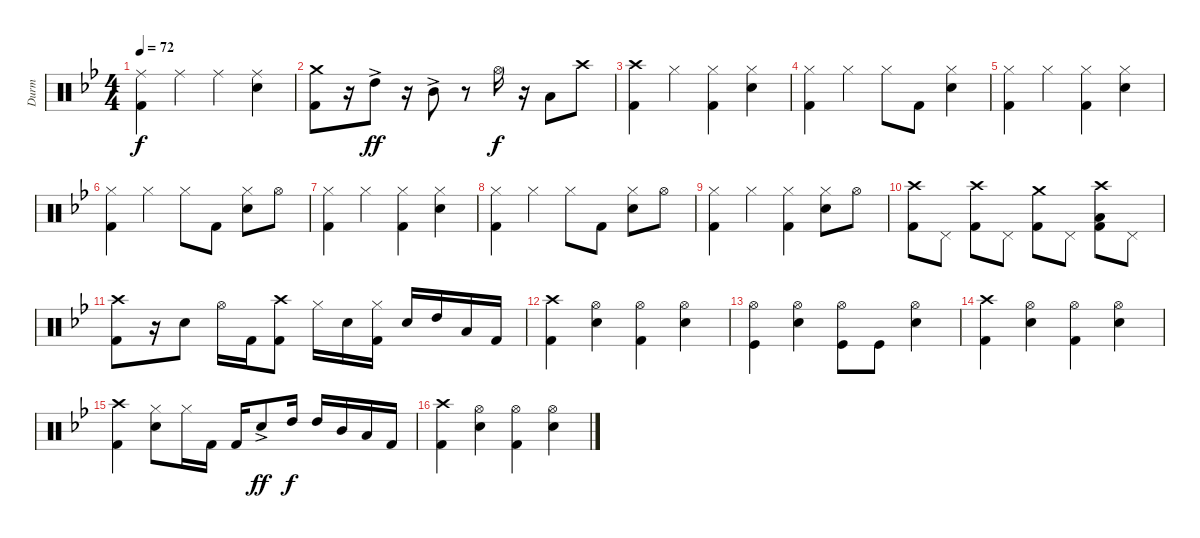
\track ("Durm" "Durm") {instrument percussion}
\staff {score}
\articulation defaults
\ts (4 4)
\tempo 72
\clef neutral
\ks bb
("Ride (middle)" "Kick (hit) 2").4{dy f} "Ride (middle)".4 "Ride (middle)".4 ("Ride (middle)" "Electric Snare (hit)").4 |
("Crash medium (hit)" "Kick (hit) 2").8 r.16 "High Tom (hit)"{ac}.8{dy ff} r.16 "Mid Tom (hit)"{ac}.8 r.8 "Hi-Hat (open)".16{dy f} r.16 "Low Floor Tom (hit)".8 "Crash high (hit)".8 |
("Crash high (hit)" "Kick (hit) 2").4 "Hi-Hat (closed)".4 ("Hi-Hat (closed)" "Kick (hit) 2").4 ("Hi-Hat (closed)" "Electric Snare (hit)").4 |
("Hi-Hat (closed)" "Kick (hit) 2").4 "Hi-Hat (closed)".4 "Hi-Hat (closed)".8 "Kick (hit) 2".8 ("Hi-Hat (closed)" "Electric Snare (hit)").4 |
("Hi-Hat (closed)" "Kick (hit) 2").4 "Hi-Hat (closed)".4 ("Hi-Hat (closed)" "Kick (hit) 2").4 ("Hi-Hat (closed)" "Electric Snare (hit)").4 |
("Hi-Hat (closed)" "Kick (hit) 2").4 "Hi-Hat (closed)".4 "Hi-Hat (closed)".8 "Kick (hit) 2".8 ("Hi-Hat (closed)" "Electric Snare (hit)").8 "Hi-Hat (open)".8 |
("Hi-Hat (closed)" "Kick (hit) 2").4 "Hi-Hat (closed)".4 ("Hi-Hat (closed)" "Kick (hit) 2").4 ("Hi-Hat (closed)" "Electric Snare (hit)").4 |
("Hi-Hat (closed)" "Kick (hit) 2").4 "Hi-Hat (closed)".4 "Hi-Hat (closed)".8 "Kick (hit) 2".8 ("Hi-Hat (closed)" "Electric Snare (hit)").8 "Hi-Hat (open)".8 |
("Hi-Hat (closed)" "Kick (hit) 2").4 "Hi-Hat (closed)".4 ("Hi-Hat (closed)" "Kick (hit) 2").4 ("Hi-Hat (closed)" "Electric Snare (hit)").8 "Hi-Hat (open)".8 |
("Crash high (hit)" "Kick (hit) 2").8 "Pedal Hi-Hat (hit)".8 ("Crash high (hit)" "Kick (hit) 2").8 "Pedal Hi-Hat (hit)".8 ("Crash medium (hit)" "Kick (hit) 2").8 "Pedal Hi-Hat (hit)".8 ("Crash high (hit)" "Low Floor Tom (hit)" "Kick (hit) 2").8 "Pedal Hi-Hat (hit)".8 |
("Crash high (hit)" "Kick (hit) 2").8 r.16 "Electric Snare (hit)".8 "Hi-Hat (open)".16 "Kick (hit) 2".16 ("Crash high (hit)" "Kick (hit) 2").8 "Hi-Hat (closed)".16 "Electric Snare (hit)".16 ("Hi-Hat (closed)" "Kick (hit) 2").16 "Electric Snare (hit)".16 "High Tom (hit)".16 "Low Floor Tom (hit)".16 "Kick (hit) 2".16 |
("Crash high (hit)" "Kick (hit) 2").4 ("Hi-Hat (open)" "Electric Snare (hit)").4 ("Hi-Hat (open)" "Kick (hit) 2").4 ("Hi-Hat (open)" "Electric Snare (hit)").4 |
("Hi-Hat (open)" "Kick (hit)").4 ("Hi-Hat (open)" "Electric Snare (hit)").4 ("Hi-Hat (open)" "Kick (hit)").8 "Kick (hit)".8 ("Hi-Hat (open)" "Electric Snare (hit)").4 |
("Crash high (hit)" "Kick (hit) 2").4 ("Hi-Hat (open)" "Electric Snare (hit)").4 ("Hi-Hat (open)" "Kick (hit) 2").4 ("Hi-Hat (open)" "Electric Snare (hit)").4 |
("Crash high (hit)" "Kick (hit) 2").4 ("Hi-Hat (closed)" "Electric Snare (hit)").8 "Hi-Hat (closed)".16 "Kick (hit) 2".16 "Kick (hit) 2".16 "Snare (hit) 2"{ac}.8{dy ff} "High Tom (hit)".16{dy f} "High Tom (hit)".16 "Mid Tom (hit)".16 "Low Floor Tom (hit)".16 "Kick (hit) 2".16 |
("Crash high (hit)" "Kick (hit) 2").4 ("Hi-Hat (open)" "Electric Snare (hit)").4 ("Hi-Hat (open)" "Kick (hit) 2").4 ("Hi-Hat (open)" "Electric Snare (hit)").4
